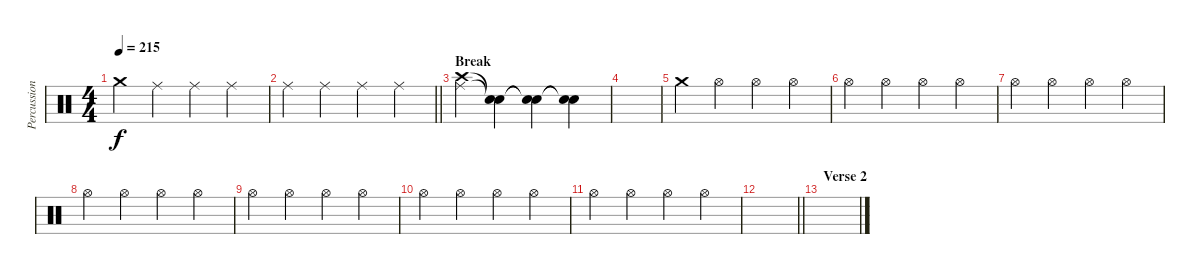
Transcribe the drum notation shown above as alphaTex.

\track ("Percussion" "Percussion") {instrument percussion}
\staff {score}
\articulation defaults
\ts (4 4)
\tempo 215
\clef neutral
\ks c "Crash medium (hit)".4{dy f} "Ride (middle)".4 "Ride (middle)".4 "Ride (middle)".4
|
\barLineRight lightlight "Ride (middle)".4 "Ride (middle)".4 "Ride (middle)".4 "Ride (middle)".4
|
\section ("" "Break")
("Crash high (hit)" "Ride (middle)").4 ("Snare (hit)"{t} "Snare (hit)"{t}).4 ("Snare (hit)"{t} "Snare (hit)"{t}).4 ("Snare (hit)"{t} "Snare (hit)"{t}).4 |
|
"Crash medium (hit)".4 "Hi-Hat (open)".4 "Hi-Hat (open)".4 "Hi-Hat (open)".4 |
"Hi-Hat (open)".4 "Hi-Hat (open)".4 "Hi-Hat (open)".4 "Hi-Hat (open)".4 |
"Hi-Hat (open)".4 "Hi-Hat (open)".4 "Hi-Hat (open)".4 "Hi-Hat (open)".4 |
"Hi-Hat (open)".4 "Hi-Hat (open)".4 "Hi-Hat (open)".4 "Hi-Hat (open)".4 |
"Hi-Hat (open)".4 "Hi-Hat (open)".4 "Hi-Hat (open)".4 "Hi-Hat (open)".4 |
"Hi-Hat (open)".4 "Hi-Hat (open)".4 "Hi-Hat (open)".4 "Hi-Hat (open)".4 |
"Hi-Hat (open)".4 "Hi-Hat (open)".4 "Hi-Hat (open)".4 "Hi-Hat (open)".4 |
\barLineRight lightlight
|
\section ("" "Verse 2")
